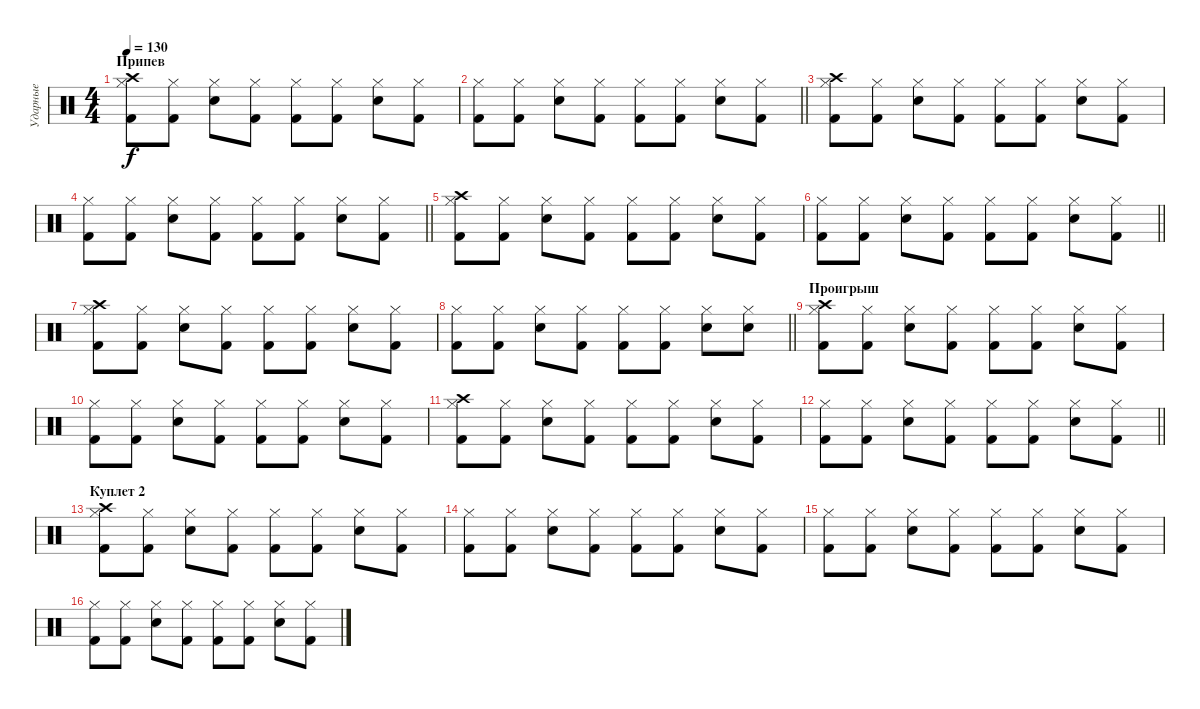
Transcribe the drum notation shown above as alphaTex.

\track ("Ударные" "Ударные") {instrument percussion}
\staff {score}
\articulation defaults
\ts (4 4)
\section ("" "Припев")
\tempo 130
\clef neutral
\ks c
("Kick (hit) 2" "Crash high (hit)" "Hi-Hat (closed)").8{dy f} ("Kick (hit) 2" "Hi-Hat (closed)").8 ("Snare (hit) 2" "Hi-Hat (closed)").8 ("Kick (hit) 2" "Hi-Hat (closed)").8 ("Kick (hit) 2" "Hi-Hat (closed)").8 ("Kick (hit) 2" "Hi-Hat (closed)").8 ("Snare (hit) 2" "Hi-Hat (closed)").8 ("Kick (hit) 2" "Hi-Hat (closed)").8 |
\barLineRight lightlight
("Kick (hit) 2" "Hi-Hat (closed)").8 ("Kick (hit) 2" "Hi-Hat (closed)").8 ("Snare (hit) 2" "Hi-Hat (closed)").8 ("Kick (hit) 2" "Hi-Hat (closed)").8 ("Kick (hit) 2" "Hi-Hat (closed)").8 ("Kick (hit) 2" "Hi-Hat (closed)").8 ("Snare (hit) 2" "Hi-Hat (closed)").8 ("Kick (hit) 2" "Hi-Hat (closed)").8 |
("Kick (hit) 2" "Crash high (hit)" "Hi-Hat (closed)").8 ("Kick (hit) 2" "Hi-Hat (closed)").8 ("Snare (hit) 2" "Hi-Hat (closed)").8 ("Kick (hit) 2" "Hi-Hat (closed)").8 ("Kick (hit) 2" "Hi-Hat (closed)").8 ("Kick (hit) 2" "Hi-Hat (closed)").8 ("Snare (hit) 2" "Hi-Hat (closed)").8 ("Kick (hit) 2" "Hi-Hat (closed)").8 |
\barLineRight lightlight
("Kick (hit) 2" "Hi-Hat (closed)").8 ("Kick (hit) 2" "Hi-Hat (closed)").8 ("Snare (hit) 2" "Hi-Hat (closed)").8 ("Kick (hit) 2" "Hi-Hat (closed)").8 ("Kick (hit) 2" "Hi-Hat (closed)").8 ("Kick (hit) 2" "Hi-Hat (closed)").8 ("Snare (hit) 2" "Hi-Hat (closed)").8 ("Kick (hit) 2" "Hi-Hat (closed)").8 |
("Kick (hit) 2" "Crash high (hit)" "Hi-Hat (closed)").8 ("Kick (hit) 2" "Hi-Hat (closed)").8 ("Snare (hit) 2" "Hi-Hat (closed)").8 ("Kick (hit) 2" "Hi-Hat (closed)").8 ("Kick (hit) 2" "Hi-Hat (closed)").8 ("Kick (hit) 2" "Hi-Hat (closed)").8 ("Snare (hit) 2" "Hi-Hat (closed)").8 ("Kick (hit) 2" "Hi-Hat (closed)").8 |
\barLineRight lightlight
("Kick (hit) 2" "Hi-Hat (closed)").8 ("Kick (hit) 2" "Hi-Hat (closed)").8 ("Snare (hit) 2" "Hi-Hat (closed)").8 ("Kick (hit) 2" "Hi-Hat (closed)").8 ("Kick (hit) 2" "Hi-Hat (closed)").8 ("Kick (hit) 2" "Hi-Hat (closed)").8 ("Snare (hit) 2" "Hi-Hat (closed)").8 ("Kick (hit) 2" "Hi-Hat (closed)").8 |
("Kick (hit) 2" "Crash high (hit)" "Hi-Hat (closed)").8 ("Kick (hit) 2" "Hi-Hat (closed)").8 ("Snare (hit) 2" "Hi-Hat (closed)").8 ("Kick (hit) 2" "Hi-Hat (closed)").8 ("Kick (hit) 2" "Hi-Hat (closed)").8 ("Kick (hit) 2" "Hi-Hat (closed)").8 ("Snare (hit) 2" "Hi-Hat (closed)").8 ("Kick (hit) 2" "Hi-Hat (closed)").8 |
\barLineRight lightlight
("Kick (hit) 2" "Hi-Hat (closed)").8 ("Kick (hit) 2" "Hi-Hat (closed)").8 ("Snare (hit) 2" "Hi-Hat (closed)").8 ("Kick (hit) 2" "Hi-Hat (closed)").8 ("Kick (hit) 2" "Hi-Hat (closed)").8 ("Kick (hit) 2" "Hi-Hat (closed)").8 ("Snare (hit) 2" "Hi-Hat (closed)").8 ("Snare (hit) 2" "Hi-Hat (closed)").8 |
\section ("" "Проигрыш")
("Kick (hit) 2" "Crash high (hit)" "Hi-Hat (closed)").8 ("Kick (hit) 2" "Hi-Hat (closed)").8 ("Snare (hit) 2" "Hi-Hat (closed)").8 ("Kick (hit) 2" "Hi-Hat (closed)").8 ("Kick (hit) 2" "Hi-Hat (closed)").8 ("Kick (hit) 2" "Hi-Hat (closed)").8 ("Snare (hit) 2" "Hi-Hat (closed)").8 ("Kick (hit) 2" "Hi-Hat (closed)").8 |
("Kick (hit) 2" "Hi-Hat (closed)").8 ("Kick (hit) 2" "Hi-Hat (closed)").8 ("Snare (hit) 2" "Hi-Hat (closed)").8 ("Kick (hit) 2" "Hi-Hat (closed)").8 ("Kick (hit) 2" "Hi-Hat (closed)").8 ("Kick (hit) 2" "Hi-Hat (closed)").8 ("Snare (hit) 2" "Hi-Hat (closed)").8 ("Kick (hit) 2" "Hi-Hat (closed)").8 |
("Kick (hit) 2" "Crash high (hit)" "Hi-Hat (closed)").8 ("Kick (hit) 2" "Hi-Hat (closed)").8 ("Snare (hit) 2" "Hi-Hat (closed)").8 ("Kick (hit) 2" "Hi-Hat (closed)").8 ("Kick (hit) 2" "Hi-Hat (closed)").8 ("Kick (hit) 2" "Hi-Hat (closed)").8 ("Snare (hit) 2" "Hi-Hat (closed)").8 ("Kick (hit) 2" "Hi-Hat (closed)").8 |
\barLineRight lightlight
("Kick (hit) 2" "Hi-Hat (closed)").8 ("Kick (hit) 2" "Hi-Hat (closed)").8 ("Snare (hit) 2" "Hi-Hat (closed)").8 ("Kick (hit) 2" "Hi-Hat (closed)").8 ("Kick (hit) 2" "Hi-Hat (closed)").8 ("Kick (hit) 2" "Hi-Hat (closed)").8 ("Snare (hit) 2" "Hi-Hat (closed)").8 ("Kick (hit) 2" "Hi-Hat (closed)").8 |
\section ("" "Куплет 2")
("Kick (hit) 2" "Crash high (hit)" "Hi-Hat (closed)").8 ("Kick (hit) 2" "Hi-Hat (closed)").8 ("Snare (hit) 2" "Hi-Hat (closed)").8 ("Kick (hit) 2" "Hi-Hat (closed)").8 ("Kick (hit) 2" "Hi-Hat (closed)").8 ("Kick (hit) 2" "Hi-Hat (closed)").8 ("Snare (hit) 2" "Hi-Hat (closed)").8 ("Kick (hit) 2" "Hi-Hat (closed)").8 |
("Kick (hit) 2" "Hi-Hat (closed)").8 ("Kick (hit) 2" "Hi-Hat (closed)").8 ("Snare (hit) 2" "Hi-Hat (closed)").8 ("Kick (hit) 2" "Hi-Hat (closed)").8 ("Kick (hit) 2" "Hi-Hat (closed)").8 ("Kick (hit) 2" "Hi-Hat (closed)").8 ("Snare (hit) 2" "Hi-Hat (closed)").8 ("Kick (hit) 2" "Hi-Hat (closed)").8 |
("Kick (hit) 2" "Hi-Hat (closed)").8 ("Kick (hit) 2" "Hi-Hat (closed)").8 ("Snare (hit) 2" "Hi-Hat (closed)").8 ("Kick (hit) 2" "Hi-Hat (closed)").8 ("Kick (hit) 2" "Hi-Hat (closed)").8 ("Kick (hit) 2" "Hi-Hat (closed)").8 ("Snare (hit) 2" "Hi-Hat (closed)").8 ("Kick (hit) 2" "Hi-Hat (closed)").8 |
("Kick (hit) 2" "Hi-Hat (closed)").8 ("Kick (hit) 2" "Hi-Hat (closed)").8 ("Snare (hit) 2" "Hi-Hat (closed)").8 ("Kick (hit) 2" "Hi-Hat (closed)").8 ("Kick (hit) 2" "Hi-Hat (closed)").8 ("Kick (hit) 2" "Hi-Hat (closed)").8 ("Snare (hit) 2" "Hi-Hat (closed)").8 ("Kick (hit) 2" "Hi-Hat (closed)").8
